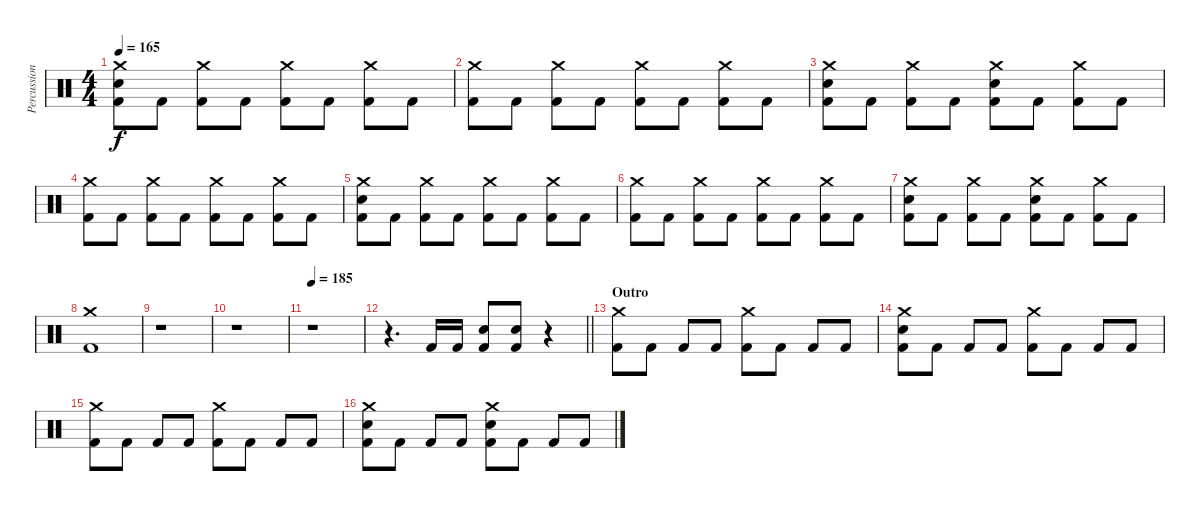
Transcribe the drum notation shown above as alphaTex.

\track ("Percussions" "Percussion") {instrument percussion}
\staff {score}
\articulation defaults
\ts (4 4)
\tempo 165
\clef neutral
\ks c
("Crash medium (hit)" "Electric Snare (hit)" "Kick (hit) 2").8{dy f} "Kick (hit) 2".8 ("Crash medium (hit)" "Kick (hit) 2").8 "Kick (hit) 2".8 ("Crash medium (hit)" "Kick (hit) 2").8 "Kick (hit) 2".8 ("Crash medium (hit)" "Kick (hit) 2").8 "Kick (hit) 2".8 |
("Crash medium (hit)" "Kick (hit) 2").8 "Kick (hit) 2".8 ("Crash medium (hit)" "Kick (hit) 2").8 "Kick (hit) 2".8 ("Crash medium (hit)" "Kick (hit) 2").8 "Kick (hit) 2".8 ("Crash medium (hit)" "Kick (hit) 2").8 "Kick (hit) 2".8 |
("Crash medium (hit)" "Electric Snare (hit)" "Kick (hit) 2").8 "Kick (hit) 2".8 ("Crash medium (hit)" "Kick (hit) 2").8 "Kick (hit) 2".8 ("Crash medium (hit)" "Electric Snare (hit)" "Kick (hit) 2").8 "Kick (hit) 2".8 ("Crash medium (hit)" "Kick (hit) 2").8 "Kick (hit) 2".8 |
("Crash medium (hit)" "Kick (hit) 2").8 "Kick (hit) 2".8 ("Crash medium (hit)" "Kick (hit) 2").8 "Kick (hit) 2".8 ("Crash medium (hit)" "Kick (hit) 2").8 "Kick (hit) 2".8 ("Crash medium (hit)" "Kick (hit) 2").8 "Kick (hit) 2".8 |
("Crash medium (hit)" "Electric Snare (hit)" "Kick (hit) 2").8 "Kick (hit) 2".8 ("Crash medium (hit)" "Kick (hit) 2").8 "Kick (hit) 2".8 ("Crash medium (hit)" "Kick (hit) 2").8 "Kick (hit) 2".8 ("Crash medium (hit)" "Kick (hit) 2").8 "Kick (hit) 2".8 |
("Crash medium (hit)" "Kick (hit) 2").8 "Kick (hit) 2".8 ("Crash medium (hit)" "Kick (hit) 2").8 "Kick (hit) 2".8 ("Crash medium (hit)" "Kick (hit) 2").8 "Kick (hit) 2".8 ("Crash medium (hit)" "Kick (hit) 2").8 "Kick (hit) 2".8 |
("Crash medium (hit)" "Electric Snare (hit)" "Kick (hit) 2").8 "Kick (hit) 2".8 ("Crash medium (hit)" "Kick (hit) 2").8 "Kick (hit) 2".8 ("Crash medium (hit)" "Electric Snare (hit)" "Kick (hit) 2").8 "Kick (hit) 2".8 ("Crash medium (hit)" "Kick (hit) 2").8 "Kick (hit) 2".8 |
("Crash medium (hit)" "Kick (hit) 2").1 |
r.1 |
r.1 |
\tempo 185
r.1 |
\barLineRight lightlight
r.4{d} "Kick (hit) 2".16 "Kick (hit) 2".16 ("Electric Snare (hit)" "Kick (hit) 2").8 ("Electric Snare (hit)" "Kick (hit) 2").8 r.4 |
\section ("" "Outro")
("Crash medium (hit)" "Kick (hit) 2").8 "Kick (hit) 2".8 "Kick (hit) 2".8 "Kick (hit) 2".8 ("Crash medium (hit)" "Kick (hit) 2").8 "Kick (hit) 2".8 "Kick (hit) 2".8 "Kick (hit) 2".8 |
("Crash medium (hit)" "Electric Snare (hit)" "Kick (hit) 2").8 "Kick (hit) 2".8 "Kick (hit) 2".8 "Kick (hit) 2".8 ("Crash medium (hit)" "Kick (hit) 2").8 "Kick (hit) 2".8 "Kick (hit) 2".8 "Kick (hit) 2".8 |
("Crash medium (hit)" "Kick (hit) 2").8 "Kick (hit) 2".8 "Kick (hit) 2".8 "Kick (hit) 2".8 ("Crash medium (hit)" "Kick (hit) 2").8 "Kick (hit) 2".8 "Kick (hit) 2".8 "Kick (hit) 2".8 |
("Crash medium (hit)" "Electric Snare (hit)" "Kick (hit) 2").8 "Kick (hit) 2".8 "Kick (hit) 2".8 "Kick (hit) 2".8 ("Crash medium (hit)" "Electric Snare (hit)" "Kick (hit) 2").8 "Kick (hit) 2".8 "Kick (hit) 2".8 "Kick (hit) 2".8
